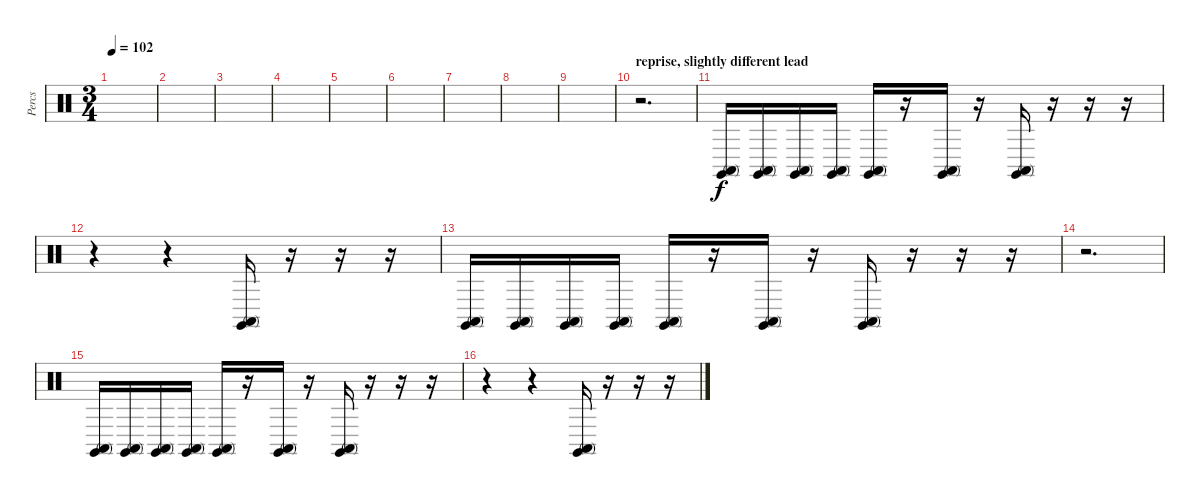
\track ("Percs" "Percs") {instrument percussion}
\staff {score}
\articulation defaults
\ts (3 4)
\tempo 102
\clef neutral
\ks c
|
|
|
|
|
|
|
|
|
\section ("" "reprise, slightly different lead")
r.2{d} |
("Claves (hit)" "Conga high (mute)").16 ("Claves (hit)" "Conga high (mute)").16 ("Claves (hit)" "Conga high (mute)").16 ("Claves (hit)" "Conga high (mute)").16 ("Claves (hit)" "Conga high (mute)").16 r.16 ("Claves (hit)" "Conga high (mute)").16 r.16 ("Claves (hit)" "Conga high (mute)").16 r.16 r.16 r.16 |
r.4 r.4 ("Claves (hit)" "Conga high (mute)").16 r.16 r.16 r.16 |
("Claves (hit)" "Conga high (mute)").16 ("Claves (hit)" "Conga high (mute)").16 ("Claves (hit)" "Conga high (mute)").16 ("Claves (hit)" "Conga high (mute)").16 ("Claves (hit)" "Conga high (mute)").16 r.16 ("Claves (hit)" "Conga high (mute)").16 r.16 ("Claves (hit)" "Conga high (mute)").16 r.16 r.16 r.16 |
r.2{d} |
("Claves (hit)" "Conga high (mute)").16 ("Claves (hit)" "Conga high (mute)").16 ("Claves (hit)" "Conga high (mute)").16 ("Claves (hit)" "Conga high (mute)").16 ("Claves (hit)" "Conga high (mute)").16 r.16 ("Claves (hit)" "Conga high (mute)").16 r.16 ("Claves (hit)" "Conga high (mute)").16 r.16 r.16 r.16 |
r.4 r.4 ("Claves (hit)" "Conga high (mute)").16 r.16 r.16 r.16
